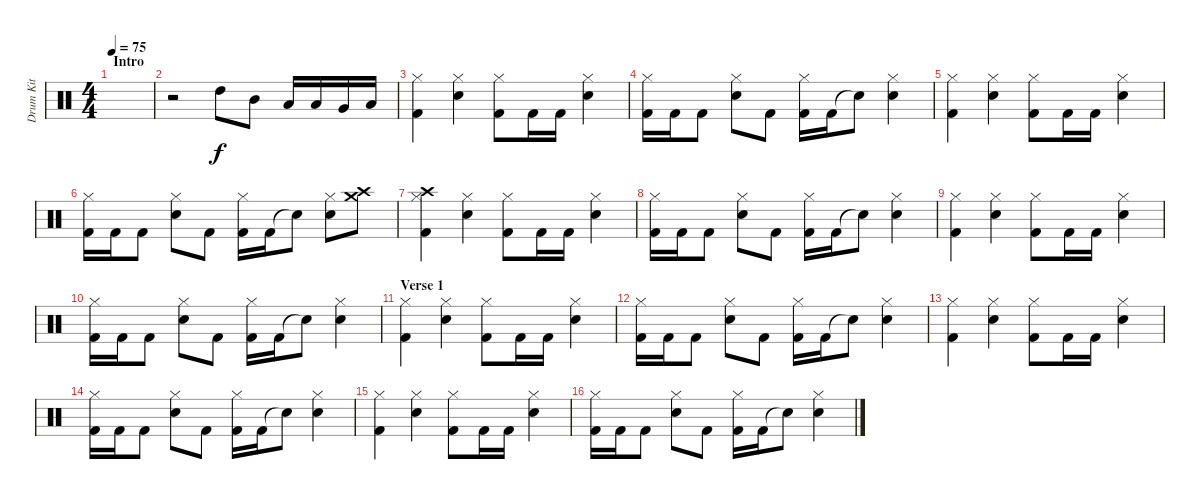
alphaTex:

\track ("Drum Kit" "Drum Kit") {instrument percussion}
\staff {score}
\articulation defaults
\ts (4 4)
\section ("" "Intro")
\tempo 75
\clef neutral
\ks c
|
r.2 "High Tom (hit)".8 "Mid Tom (hit)".8 "Low Tom (hit)".16 "Low Tom (hit)".16 "Very Low Tom (hit)".16 "Low Floor Tom (hit)".16 |
("Kick (hit) 2" "Hi-Hat (closed)").4 ("Electric Snare (hit)" "Hi-Hat (closed)").4 ("Kick (hit) 2" "Hi-Hat (closed)").8 "Kick (hit) 2".16 "Kick (hit) 2".16 ("Electric Snare (hit)" "Hi-Hat (closed)").4 |
("Kick (hit) 2" "Hi-Hat (closed)").16 "Kick (hit) 2".16 "Kick (hit) 2".8 ("Electric Snare (hit)" "Hi-Hat (closed)").8 "Kick (hit) 2".8 ("Kick (hit) 2" "Hi-Hat (closed)").16 "Kick (hit) 2".16 "Snare (hit)"{t}.8 ("Electric Snare (hit)" "Hi-Hat (closed)").4 |
("Kick (hit) 2" "Hi-Hat (closed)").4 ("Electric Snare (hit)" "Hi-Hat (closed)").4 ("Kick (hit) 2" "Hi-Hat (closed)").8 "Kick (hit) 2".16 "Kick (hit) 2".16 ("Electric Snare (hit)" "Hi-Hat (closed)").4 |
("Kick (hit) 2" "Hi-Hat (closed)").16 "Kick (hit) 2".16 "Kick (hit) 2".8 ("Electric Snare (hit)" "Hi-Hat (closed)").8 "Kick (hit) 2".8 ("Kick (hit) 2" "Hi-Hat (closed)").16 "Kick (hit) 2".16 "Snare (hit)"{t}.8 ("Electric Snare (hit)" "Hi-Hat (closed)").8 ("Crash medium (hit)" "Crash high (hit)").8 |
("Crash high (hit)" "Kick (hit) 2" "Hi-Hat (closed)").4 ("Electric Snare (hit)" "Hi-Hat (closed)").4 ("Kick (hit) 2" "Hi-Hat (closed)").8 "Kick (hit) 2".16 "Kick (hit) 2".16 ("Electric Snare (hit)" "Hi-Hat (closed)").4 |
("Kick (hit) 2" "Hi-Hat (closed)").16 "Kick (hit) 2".16 "Kick (hit) 2".8 ("Electric Snare (hit)" "Hi-Hat (closed)").8 "Kick (hit) 2".8 ("Kick (hit) 2" "Hi-Hat (closed)").16 "Kick (hit) 2".16 "Snare (hit)"{t}.8 ("Electric Snare (hit)" "Hi-Hat (closed)").4 |
("Kick (hit) 2" "Hi-Hat (closed)").4 ("Electric Snare (hit)" "Hi-Hat (closed)").4 ("Kick (hit) 2" "Hi-Hat (closed)").8 "Kick (hit) 2".16 "Kick (hit) 2".16 ("Electric Snare (hit)" "Hi-Hat (closed)").4 |
("Kick (hit) 2" "Hi-Hat (closed)").16 "Kick (hit) 2".16 "Kick (hit) 2".8 ("Electric Snare (hit)" "Hi-Hat (closed)").8 "Kick (hit) 2".8 ("Kick (hit) 2" "Hi-Hat (closed)").16 "Kick (hit) 2".16 "Snare (hit)"{t}.8 ("Electric Snare (hit)" "Hi-Hat (closed)").4 |
\section ("" "Verse 1")
("Kick (hit) 2" "Hi-Hat (closed)").4 ("Electric Snare (hit)" "Hi-Hat (closed)").4 ("Kick (hit) 2" "Hi-Hat (closed)").8 "Kick (hit) 2".16 "Kick (hit) 2".16 ("Electric Snare (hit)" "Hi-Hat (closed)").4 |
("Kick (hit) 2" "Hi-Hat (closed)").16 "Kick (hit) 2".16 "Kick (hit) 2".8 ("Electric Snare (hit)" "Hi-Hat (closed)").8 "Kick (hit) 2".8 ("Kick (hit) 2" "Hi-Hat (closed)").16 "Kick (hit) 2".16 "Snare (hit)"{t}.8 ("Electric Snare (hit)" "Hi-Hat (closed)").4 |
("Kick (hit) 2" "Hi-Hat (closed)").4 ("Electric Snare (hit)" "Hi-Hat (closed)").4 ("Kick (hit) 2" "Hi-Hat (closed)").8 "Kick (hit) 2".16 "Kick (hit) 2".16 ("Electric Snare (hit)" "Hi-Hat (closed)").4 |
("Kick (hit) 2" "Hi-Hat (closed)").16 "Kick (hit) 2".16 "Kick (hit) 2".8 ("Electric Snare (hit)" "Hi-Hat (closed)").8 "Kick (hit) 2".8 ("Kick (hit) 2" "Hi-Hat (closed)").16 "Kick (hit) 2".16 "Snare (hit)"{t}.8 ("Electric Snare (hit)" "Hi-Hat (closed)").4 |
("Kick (hit) 2" "Hi-Hat (closed)").4 ("Electric Snare (hit)" "Hi-Hat (closed)").4 ("Kick (hit) 2" "Hi-Hat (closed)").8 "Kick (hit) 2".16 "Kick (hit) 2".16 ("Electric Snare (hit)" "Hi-Hat (closed)").4 |
("Kick (hit) 2" "Hi-Hat (closed)").16 "Kick (hit) 2".16 "Kick (hit) 2".8 ("Electric Snare (hit)" "Hi-Hat (closed)").8 "Kick (hit) 2".8 ("Kick (hit) 2" "Hi-Hat (closed)").16 "Kick (hit) 2".16 "Snare (hit)"{t}.8 ("Electric Snare (hit)" "Hi-Hat (closed)").4
